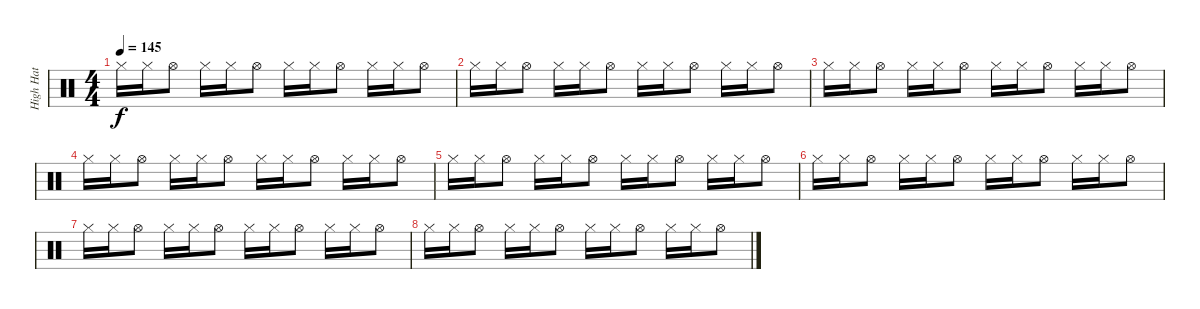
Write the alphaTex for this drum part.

\track ("High Hat" "High Hat") {instrument percussion}
\staff {score}
\articulation defaults
\ts (4 4)
\tempo 145
\clef neutral
\ks c "Hi-Hat (closed)".16{dy f} "Hi-Hat (closed)".16 "Hi-Hat (open)".8 "Hi-Hat (closed)".16 "Hi-Hat (closed)".16 "Hi-Hat (open)".8 "Hi-Hat (closed)".16 "Hi-Hat (closed)".16 "Hi-Hat (open)".8 "Hi-Hat (closed)".16 "Hi-Hat (closed)".16 "Hi-Hat (open)".8
|
"Hi-Hat (closed)".16 "Hi-Hat (closed)".16 "Hi-Hat (open)".8 "Hi-Hat (closed)".16 "Hi-Hat (closed)".16 "Hi-Hat (open)".8 "Hi-Hat (closed)".16 "Hi-Hat (closed)".16 "Hi-Hat (open)".8 "Hi-Hat (closed)".16 "Hi-Hat (closed)".16 "Hi-Hat (open)".8 |
"Hi-Hat (closed)".16 "Hi-Hat (closed)".16 "Hi-Hat (open)".8 "Hi-Hat (closed)".16 "Hi-Hat (closed)".16 "Hi-Hat (open)".8 "Hi-Hat (closed)".16 "Hi-Hat (closed)".16 "Hi-Hat (open)".8 "Hi-Hat (closed)".16 "Hi-Hat (closed)".16 "Hi-Hat (open)".8 |
"Hi-Hat (closed)".16 "Hi-Hat (closed)".16 "Hi-Hat (open)".8 "Hi-Hat (closed)".16 "Hi-Hat (closed)".16 "Hi-Hat (open)".8 "Hi-Hat (closed)".16 "Hi-Hat (closed)".16 "Hi-Hat (open)".8 "Hi-Hat (closed)".16 "Hi-Hat (closed)".16 "Hi-Hat (open)".8 |
"Hi-Hat (closed)".16 "Hi-Hat (closed)".16 "Hi-Hat (open)".8 "Hi-Hat (closed)".16 "Hi-Hat (closed)".16 "Hi-Hat (open)".8 "Hi-Hat (closed)".16 "Hi-Hat (closed)".16 "Hi-Hat (open)".8 "Hi-Hat (closed)".16 "Hi-Hat (closed)".16 "Hi-Hat (open)".8 |
"Hi-Hat (closed)".16 "Hi-Hat (closed)".16 "Hi-Hat (open)".8 "Hi-Hat (closed)".16 "Hi-Hat (closed)".16 "Hi-Hat (open)".8 "Hi-Hat (closed)".16 "Hi-Hat (closed)".16 "Hi-Hat (open)".8 "Hi-Hat (closed)".16 "Hi-Hat (closed)".16 "Hi-Hat (open)".8 |
"Hi-Hat (closed)".16 "Hi-Hat (closed)".16 "Hi-Hat (open)".8 "Hi-Hat (closed)".16 "Hi-Hat (closed)".16 "Hi-Hat (open)".8 "Hi-Hat (closed)".16 "Hi-Hat (closed)".16 "Hi-Hat (open)".8 "Hi-Hat (closed)".16 "Hi-Hat (closed)".16 "Hi-Hat (open)".8 |
"Hi-Hat (closed)".16 "Hi-Hat (closed)".16 "Hi-Hat (open)".8 "Hi-Hat (closed)".16 "Hi-Hat (closed)".16 "Hi-Hat (open)".8 "Hi-Hat (closed)".16 "Hi-Hat (closed)".16 "Hi-Hat (open)".8 "Hi-Hat (closed)".16 "Hi-Hat (closed)".16 "Hi-Hat (open)".8
